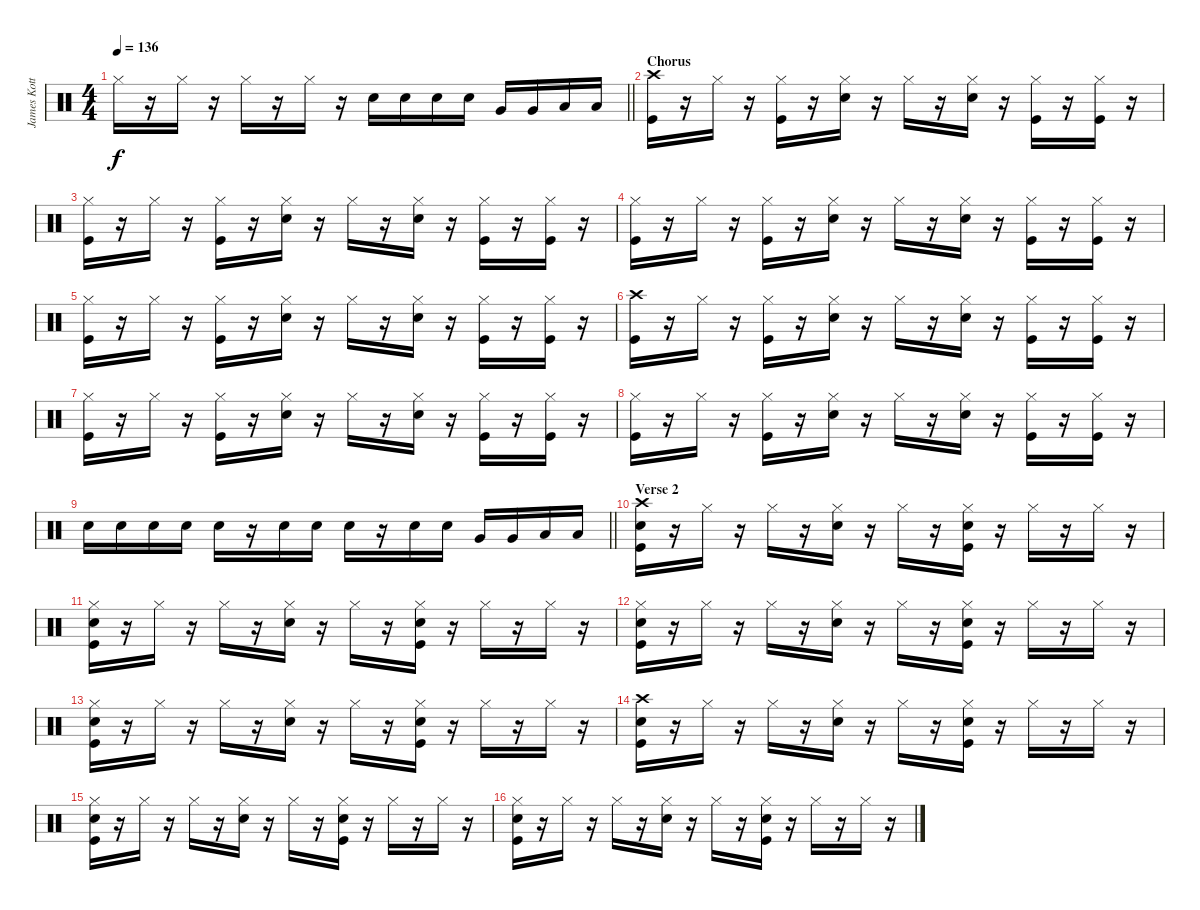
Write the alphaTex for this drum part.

\track ("James Kottak" "James Kott") {instrument percussion}
\staff {score}
\articulation defaults
\ts (4 4)
\tempo 136
\clef neutral
\barLineRight lightlight
\ks c "Hi-Hat (closed)".16{dy f}
r.16 "Hi-Hat (closed)".16 r.16 "Hi-Hat (closed)".16 r.16 "Hi-Hat (closed)".16 r.16 "Snare (hit) 2".16 "Snare (hit) 2".16 "Snare (hit) 2".16 "Snare (hit) 2".16 "Very Low Tom (hit)".16 "Very Low Tom (hit)".16 "Low Floor Tom (hit)".16 "Low Floor Tom (hit)".16 |
\section ("" "Chorus")
("Crash high (hit)" "Kick (hit)").16 r.16 "Hi-Hat (closed)".16 r.16 ("Hi-Hat (closed)" "Kick (hit)").16 r.16 ("Hi-Hat (closed)" "Snare (hit) 2").16 r.16 "Hi-Hat (closed)".16 r.16 ("Hi-Hat (closed)" "Snare (hit) 2").16 r.16 ("Hi-Hat (closed)" "Kick (hit)").16 r.16 ("Hi-Hat (closed)" "Kick (hit)").16 r.16 |
("Hi-Hat (closed)" "Kick (hit)").16 r.16 "Hi-Hat (closed)".16 r.16 ("Hi-Hat (closed)" "Kick (hit)").16 r.16 ("Hi-Hat (closed)" "Snare (hit) 2").16 r.16 "Hi-Hat (closed)".16 r.16 ("Hi-Hat (closed)" "Snare (hit) 2").16 r.16 ("Hi-Hat (closed)" "Kick (hit)").16 r.16 ("Hi-Hat (closed)" "Kick (hit)").16 r.16 |
("Hi-Hat (closed)" "Kick (hit)").16 r.16 "Hi-Hat (closed)".16 r.16 ("Hi-Hat (closed)" "Kick (hit)").16 r.16 ("Hi-Hat (closed)" "Snare (hit) 2").16 r.16 "Hi-Hat (closed)".16 r.16 ("Hi-Hat (closed)" "Snare (hit) 2").16 r.16 ("Hi-Hat (closed)" "Kick (hit)").16 r.16 ("Hi-Hat (closed)" "Kick (hit)").16 r.16 |
("Hi-Hat (closed)" "Kick (hit)").16 r.16 "Hi-Hat (closed)".16 r.16 ("Hi-Hat (closed)" "Kick (hit)").16 r.16 ("Hi-Hat (closed)" "Snare (hit) 2").16 r.16 "Hi-Hat (closed)".16 r.16 ("Hi-Hat (closed)" "Snare (hit) 2").16 r.16 ("Hi-Hat (closed)" "Kick (hit)").16 r.16 ("Hi-Hat (closed)" "Kick (hit)").16 r.16 |
("Crash high (hit)" "Kick (hit)").16 r.16 "Hi-Hat (closed)".16 r.16 ("Hi-Hat (closed)" "Kick (hit)").16 r.16 ("Hi-Hat (closed)" "Snare (hit) 2").16 r.16 "Hi-Hat (closed)".16 r.16 ("Hi-Hat (closed)" "Snare (hit) 2").16 r.16 ("Hi-Hat (closed)" "Kick (hit)").16 r.16 ("Hi-Hat (closed)" "Kick (hit)").16 r.16 |
("Hi-Hat (closed)" "Kick (hit)").16 r.16 "Hi-Hat (closed)".16 r.16 ("Hi-Hat (closed)" "Kick (hit)").16 r.16 ("Hi-Hat (closed)" "Snare (hit) 2").16 r.16 "Hi-Hat (closed)".16 r.16 ("Hi-Hat (closed)" "Snare (hit) 2").16 r.16 ("Hi-Hat (closed)" "Kick (hit)").16 r.16 ("Hi-Hat (closed)" "Kick (hit)").16 r.16 |
("Hi-Hat (closed)" "Kick (hit)").16 r.16 "Hi-Hat (closed)".16 r.16 ("Hi-Hat (closed)" "Kick (hit)").16 r.16 ("Hi-Hat (closed)" "Snare (hit) 2").16 r.16 "Hi-Hat (closed)".16 r.16 ("Hi-Hat (closed)" "Snare (hit) 2").16 r.16 ("Hi-Hat (closed)" "Kick (hit)").16 r.16 ("Hi-Hat (closed)" "Kick (hit)").16 r.16 |
\barLineRight lightlight "Snare (hit) 2".16 "Snare (hit) 2".16 "Snare (hit) 2".16 "Snare (hit) 2".16 "Snare (hit) 2".16
r.16 "Snare (hit) 2".16 "Snare (hit) 2".16 "Snare (hit) 2".16 r.16 "Snare (hit) 2".16 "Snare (hit) 2".16 "Very Low Tom (hit)".16 "Very Low Tom (hit)".16 "Low Floor Tom (hit)".16 "Low Floor Tom (hit)".16 |
\section ("" "Verse 2")
("Crash high (hit)" "Snare (hit) 2" "Kick (hit)").16 r.16 "Hi-Hat (closed)".16 r.16 "Hi-Hat (closed)".16 r.16 ("Hi-Hat (closed)" "Snare (hit) 2").16 r.16 "Hi-Hat (closed)".16 r.16 ("Hi-Hat (closed)" "Snare (hit) 2" "Kick (hit)").16 r.16 "Hi-Hat (closed)".16 r.16 "Hi-Hat (closed)".16 r.16 |
("Hi-Hat (closed)" "Snare (hit) 2" "Kick (hit)").16 r.16 "Hi-Hat (closed)".16 r.16 "Hi-Hat (closed)".16 r.16 ("Hi-Hat (closed)" "Snare (hit) 2").16 r.16 "Hi-Hat (closed)".16 r.16 ("Hi-Hat (closed)" "Snare (hit) 2" "Kick (hit)").16 r.16 "Hi-Hat (closed)".16 r.16 "Hi-Hat (closed)".16 r.16 |
("Hi-Hat (closed)" "Snare (hit) 2" "Kick (hit)").16 r.16 "Hi-Hat (closed)".16 r.16 "Hi-Hat (closed)".16 r.16 ("Hi-Hat (closed)" "Snare (hit) 2").16 r.16 "Hi-Hat (closed)".16 r.16 ("Hi-Hat (closed)" "Snare (hit) 2" "Kick (hit)").16 r.16 "Hi-Hat (closed)".16 r.16 "Hi-Hat (closed)".16 r.16 |
("Hi-Hat (closed)" "Snare (hit) 2" "Kick (hit)").16 r.16 "Hi-Hat (closed)".16 r.16 "Hi-Hat (closed)".16 r.16 ("Hi-Hat (closed)" "Snare (hit) 2").16 r.16 "Hi-Hat (closed)".16 r.16 ("Hi-Hat (closed)" "Snare (hit) 2" "Kick (hit)").16 r.16 "Hi-Hat (closed)".16 r.16 "Hi-Hat (closed)".16 r.16 |
("Crash high (hit)" "Snare (hit) 2" "Kick (hit)").16 r.16 "Hi-Hat (closed)".16 r.16 "Hi-Hat (closed)".16 r.16 ("Hi-Hat (closed)" "Snare (hit) 2").16 r.16 "Hi-Hat (closed)".16 r.16 ("Hi-Hat (closed)" "Snare (hit) 2" "Kick (hit)").16 r.16 "Hi-Hat (closed)".16 r.16 "Hi-Hat (closed)".16 r.16 |
("Hi-Hat (closed)" "Snare (hit) 2" "Kick (hit)").16 r.16 "Hi-Hat (closed)".16 r.16 "Hi-Hat (closed)".16 r.16 ("Hi-Hat (closed)" "Snare (hit) 2").16 r.16 "Hi-Hat (closed)".16 r.16 ("Hi-Hat (closed)" "Snare (hit) 2" "Kick (hit)").16 r.16 "Hi-Hat (closed)".16 r.16 "Hi-Hat (closed)".16 r.16 |
("Hi-Hat (closed)" "Snare (hit) 2" "Kick (hit)").16 r.16 "Hi-Hat (closed)".16 r.16 "Hi-Hat (closed)".16 r.16 ("Hi-Hat (closed)" "Snare (hit) 2").16 r.16 "Hi-Hat (closed)".16 r.16 ("Hi-Hat (closed)" "Snare (hit) 2" "Kick (hit)").16 r.16 "Hi-Hat (closed)".16 r.16 "Hi-Hat (closed)".16 r.16
